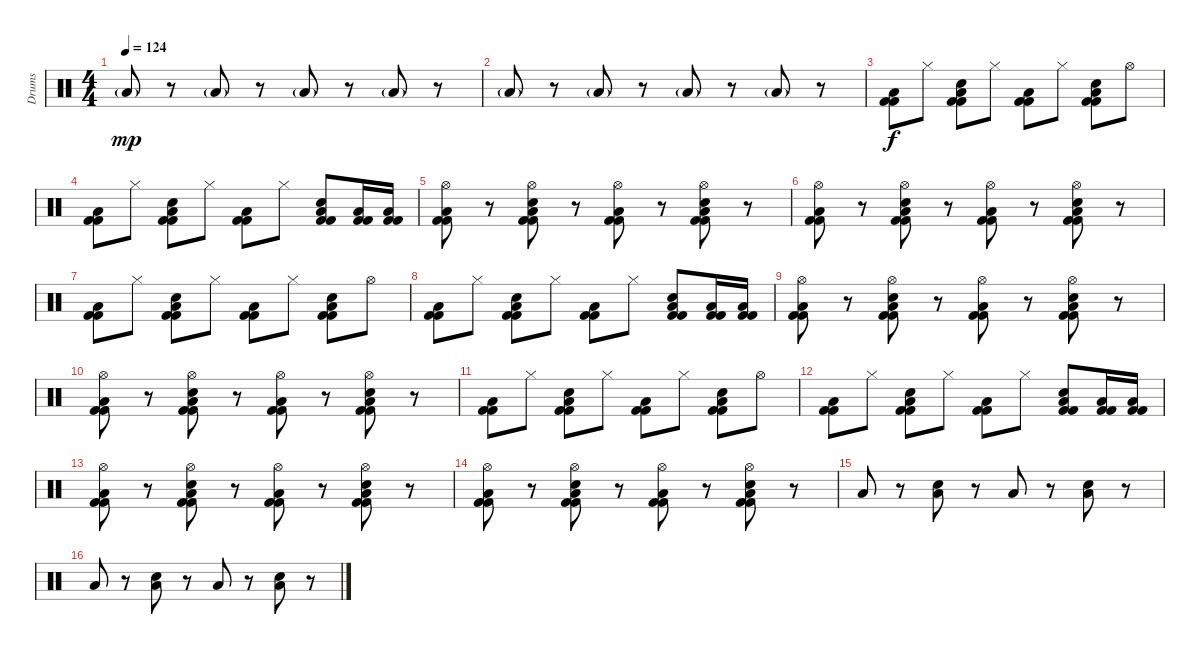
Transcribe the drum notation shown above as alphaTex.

\track ("Drums" "Drums") {instrument percussion}
\staff {score}
\articulation defaults
\ts (4 4)
\tempo 124
\clef neutral
\ks c "Low Floor Tom (hit)"{g}.8{dy mp}
r.8 "Low Floor Tom (hit)"{g}.8 r.8 "Low Floor Tom (hit)"{g}.8 r.8 "Low Floor Tom (hit)"{g}.8 r.8 |
"Low Floor Tom (hit)"{g}.8 r.8 "Low Floor Tom (hit)"{g}.8 r.8 "Low Floor Tom (hit)"{g}.8 r.8 "Low Floor Tom (hit)"{g}.8 r.8 |
("Kick (hit) 2" "Low Floor Tom (hit)" "Kick (hit) 2").8{dy f} "Hi-Hat (closed)".8 ("Electric Snare (hit)" "Kick (hit) 2" "Low Floor Tom (hit)" "Kick (hit) 2").8 "Hi-Hat (closed)".8 ("Kick (hit) 2" "Low Floor Tom (hit)" "Kick (hit) 2").8 "Hi-Hat (closed)".8 ("Electric Snare (hit)" "Kick (hit) 2" "Low Floor Tom (hit)" "Kick (hit) 2").8 "Hi-Hat (open)".8 |
("Kick (hit) 2" "Low Floor Tom (hit)" "Kick (hit) 2").8 "Hi-Hat (closed)".8 ("Electric Snare (hit)" "Kick (hit) 2" "Low Floor Tom (hit)" "Kick (hit) 2").8 "Hi-Hat (closed)".8 ("Kick (hit) 2" "Low Floor Tom (hit)" "Kick (hit) 2").8 "Hi-Hat (closed)".8 ("Electric Snare (hit)" "Kick (hit) 2" "Low Floor Tom (hit)" "Kick (hit) 2").8 ("Kick (hit) 2" "Low Floor Tom (hit)" "Kick (hit) 2").16 ("Kick (hit) 2" "Low Floor Tom (hit)" "Kick (hit) 2").16 |
("Hi-Hat (open)" "Kick (hit) 2" "Low Floor Tom (hit)" "Kick (hit) 2").8 r.8 ("Hi-Hat (open)" "Electric Snare (hit)" "Kick (hit) 2" "Low Floor Tom (hit)" "Kick (hit) 2").8 r.8 ("Hi-Hat (open)" "Kick (hit) 2" "Low Floor Tom (hit)" "Kick (hit) 2").8 r.8 ("Hi-Hat (open)" "Electric Snare (hit)" "Kick (hit) 2" "Low Floor Tom (hit)" "Kick (hit) 2").8 r.8 |
("Hi-Hat (open)" "Kick (hit) 2" "Low Floor Tom (hit)" "Kick (hit) 2").8 r.8 ("Hi-Hat (open)" "Electric Snare (hit)" "Kick (hit) 2" "Low Floor Tom (hit)" "Kick (hit) 2").8 r.8 ("Hi-Hat (open)" "Kick (hit) 2" "Low Floor Tom (hit)" "Kick (hit) 2").8 r.8 ("Hi-Hat (open)" "Electric Snare (hit)" "Kick (hit) 2" "Low Floor Tom (hit)" "Kick (hit) 2").8 r.8 |
("Kick (hit) 2" "Low Floor Tom (hit)" "Kick (hit) 2").8 "Hi-Hat (closed)".8 ("Electric Snare (hit)" "Kick (hit) 2" "Low Floor Tom (hit)" "Kick (hit) 2").8 "Hi-Hat (closed)".8 ("Kick (hit) 2" "Low Floor Tom (hit)" "Kick (hit) 2").8 "Hi-Hat (closed)".8 ("Electric Snare (hit)" "Kick (hit) 2" "Low Floor Tom (hit)" "Kick (hit) 2").8 "Hi-Hat (open)".8 |
("Kick (hit) 2" "Low Floor Tom (hit)" "Kick (hit) 2").8 "Hi-Hat (closed)".8 ("Electric Snare (hit)" "Kick (hit) 2" "Low Floor Tom (hit)" "Kick (hit) 2").8 "Hi-Hat (closed)".8 ("Kick (hit) 2" "Low Floor Tom (hit)" "Kick (hit) 2").8 "Hi-Hat (closed)".8 ("Electric Snare (hit)" "Kick (hit) 2" "Low Floor Tom (hit)" "Kick (hit) 2").8 ("Kick (hit) 2" "Low Floor Tom (hit)" "Kick (hit) 2").16 ("Kick (hit) 2" "Low Floor Tom (hit)" "Kick (hit) 2").16 |
("Hi-Hat (open)" "Kick (hit) 2" "Low Floor Tom (hit)" "Kick (hit) 2").8 r.8 ("Hi-Hat (open)" "Electric Snare (hit)" "Kick (hit) 2" "Low Floor Tom (hit)" "Kick (hit) 2").8 r.8 ("Hi-Hat (open)" "Kick (hit) 2" "Low Floor Tom (hit)" "Kick (hit) 2").8 r.8 ("Hi-Hat (open)" "Electric Snare (hit)" "Kick (hit) 2" "Low Floor Tom (hit)" "Kick (hit) 2").8 r.8 |
("Hi-Hat (open)" "Kick (hit) 2" "Low Floor Tom (hit)" "Kick (hit) 2").8 r.8 ("Hi-Hat (open)" "Electric Snare (hit)" "Kick (hit) 2" "Low Floor Tom (hit)" "Kick (hit) 2").8 r.8 ("Hi-Hat (open)" "Kick (hit) 2" "Low Floor Tom (hit)" "Kick (hit) 2").8 r.8 ("Hi-Hat (open)" "Electric Snare (hit)" "Kick (hit) 2" "Low Floor Tom (hit)" "Kick (hit) 2").8 r.8 |
("Kick (hit) 2" "Low Floor Tom (hit)" "Kick (hit) 2").8 "Hi-Hat (closed)".8 ("Electric Snare (hit)" "Kick (hit) 2" "Low Floor Tom (hit)" "Kick (hit) 2").8 "Hi-Hat (closed)".8 ("Kick (hit) 2" "Low Floor Tom (hit)" "Kick (hit) 2").8 "Hi-Hat (closed)".8 ("Electric Snare (hit)" "Kick (hit) 2" "Low Floor Tom (hit)" "Kick (hit) 2").8 "Hi-Hat (open)".8 |
("Kick (hit) 2" "Low Floor Tom (hit)" "Kick (hit) 2").8 "Hi-Hat (closed)".8 ("Electric Snare (hit)" "Kick (hit) 2" "Low Floor Tom (hit)" "Kick (hit) 2").8 "Hi-Hat (closed)".8 ("Kick (hit) 2" "Low Floor Tom (hit)" "Kick (hit) 2").8 "Hi-Hat (closed)".8 ("Electric Snare (hit)" "Kick (hit) 2" "Low Floor Tom (hit)" "Kick (hit) 2").8 ("Kick (hit) 2" "Low Floor Tom (hit)" "Kick (hit) 2").16 ("Kick (hit) 2" "Low Floor Tom (hit)" "Kick (hit) 2").16 |
("Hi-Hat (open)" "Kick (hit) 2" "Low Floor Tom (hit)" "Kick (hit) 2").8 r.8 ("Hi-Hat (open)" "Electric Snare (hit)" "Kick (hit) 2" "Low Floor Tom (hit)" "Kick (hit) 2").8 r.8 ("Hi-Hat (open)" "Kick (hit) 2" "Low Floor Tom (hit)" "Kick (hit) 2").8 r.8 ("Hi-Hat (open)" "Electric Snare (hit)" "Kick (hit) 2" "Low Floor Tom (hit)" "Kick (hit) 2").8 r.8 |
("Hi-Hat (open)" "Kick (hit) 2" "Low Floor Tom (hit)" "Kick (hit) 2").8 r.8 ("Hi-Hat (open)" "Electric Snare (hit)" "Kick (hit) 2" "Low Floor Tom (hit)" "Kick (hit) 2").8 r.8 ("Hi-Hat (open)" "Kick (hit) 2" "Low Floor Tom (hit)" "Kick (hit) 2").8 r.8 ("Hi-Hat (open)" "Electric Snare (hit)" "Kick (hit) 2" "Low Floor Tom (hit)" "Kick (hit) 2").8 r.8 |
"Low Floor Tom (hit)".8 r.8 ("Electric Snare (hit)" "Low Floor Tom (hit)").8 r.8 "Low Floor Tom (hit)".8 r.8 ("Electric Snare (hit)" "Low Floor Tom (hit)").8 r.8 |
"Low Floor Tom (hit)".8 r.8 ("Electric Snare (hit)" "Low Floor Tom (hit)").8 r.8 "Low Floor Tom (hit)".8 r.8 ("Electric Snare (hit)" "Low Floor Tom (hit)").8 r.8
